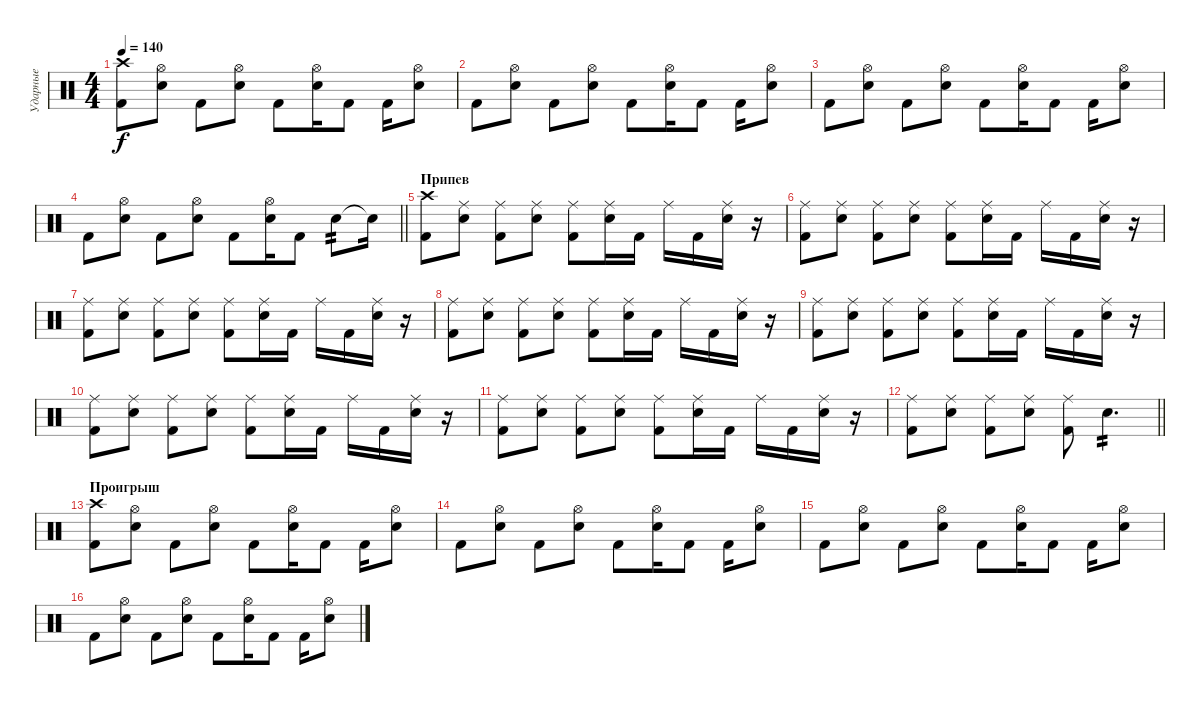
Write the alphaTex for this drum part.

\track ("Ударные" "Ударные") {instrument percussion}
\staff {score}
\articulation defaults
\ts (4 4)
\tempo 140
\clef neutral
\ks c
("Crash high (hit)" "Kick (hit) 2").8{dy f} ("Hi-Hat (open)" "Electric Snare (hit)").8 "Kick (hit) 2".8 ("Hi-Hat (open)" "Electric Snare (hit)").8 "Kick (hit) 2".8 ("Hi-Hat (open)" "Electric Snare (hit)").16 "Kick (hit) 2".8 "Kick (hit) 2".16 ("Hi-Hat (open)" "Electric Snare (hit)").8 |
"Kick (hit) 2".8 ("Hi-Hat (open)" "Electric Snare (hit)").8 "Kick (hit) 2".8 ("Hi-Hat (open)" "Electric Snare (hit)").8 "Kick (hit) 2".8 ("Hi-Hat (open)" "Electric Snare (hit)").16 "Kick (hit) 2".8 "Kick (hit) 2".16 ("Hi-Hat (open)" "Electric Snare (hit)").8 |
"Kick (hit) 2".8 ("Hi-Hat (open)" "Electric Snare (hit)").8 "Kick (hit) 2".8 ("Hi-Hat (open)" "Electric Snare (hit)").8 "Kick (hit) 2".8 ("Hi-Hat (open)" "Electric Snare (hit)").16 "Kick (hit) 2".8 "Kick (hit) 2".16 ("Hi-Hat (open)" "Electric Snare (hit)").8 |
\barLineRight lightlight "Kick (hit) 2".8
("Hi-Hat (open)" "Electric Snare (hit)").8 "Kick (hit) 2".8 ("Hi-Hat (open)" "Electric Snare (hit)").8 "Kick (hit) 2".8 ("Hi-Hat (open)" "Electric Snare (hit)").16 "Kick (hit) 2".8 "Electric Snare (hit)".8{tp 2} "Snare (hit)"{t}.16 |
\section ("" "Припев")
("Crash high (hit)" "Kick (hit) 2").8 ("Ride (middle)" "Electric Snare (hit)").8 ("Ride (middle)" "Kick (hit) 2").8 ("Ride (middle)" "Electric Snare (hit)").8 ("Ride (middle)" "Kick (hit) 2").8 ("Ride (middle)" "Electric Snare (hit)").16 "Kick (hit) 2".16 "Ride (middle)".16 "Kick (hit) 2".16 ("Ride (middle)" "Electric Snare (hit)").16 r.16 |
("Ride (middle)" "Kick (hit) 2").8 ("Ride (middle)" "Electric Snare (hit)").8 ("Ride (middle)" "Kick (hit) 2").8 ("Ride (middle)" "Electric Snare (hit)").8 ("Ride (middle)" "Kick (hit) 2").8 ("Ride (middle)" "Electric Snare (hit)").16 "Kick (hit) 2".16 "Ride (middle)".16 "Kick (hit) 2".16 ("Ride (middle)" "Electric Snare (hit)").16 r.16 |
("Ride (middle)" "Kick (hit) 2").8 ("Ride (middle)" "Electric Snare (hit)").8 ("Ride (middle)" "Kick (hit) 2").8 ("Ride (middle)" "Electric Snare (hit)").8 ("Ride (middle)" "Kick (hit) 2").8 ("Ride (middle)" "Electric Snare (hit)").16 "Kick (hit) 2".16 "Ride (middle)".16 "Kick (hit) 2".16 ("Ride (middle)" "Electric Snare (hit)").16 r.16 |
("Ride (middle)" "Kick (hit) 2").8 ("Ride (middle)" "Electric Snare (hit)").8 ("Ride (middle)" "Kick (hit) 2").8 ("Ride (middle)" "Electric Snare (hit)").8 ("Ride (middle)" "Kick (hit) 2").8 ("Ride (middle)" "Electric Snare (hit)").16 "Kick (hit) 2".16 "Ride (middle)".16 "Kick (hit) 2".16 ("Ride (middle)" "Electric Snare (hit)").16 r.16 |
("Ride (middle)" "Kick (hit) 2").8 ("Ride (middle)" "Electric Snare (hit)").8 ("Ride (middle)" "Kick (hit) 2").8 ("Ride (middle)" "Electric Snare (hit)").8 ("Ride (middle)" "Kick (hit) 2").8 ("Ride (middle)" "Electric Snare (hit)").16 "Kick (hit) 2".16 "Ride (middle)".16 "Kick (hit) 2".16 ("Ride (middle)" "Electric Snare (hit)").16 r.16 |
("Ride (middle)" "Kick (hit) 2").8 ("Ride (middle)" "Electric Snare (hit)").8 ("Ride (middle)" "Kick (hit) 2").8 ("Ride (middle)" "Electric Snare (hit)").8 ("Ride (middle)" "Kick (hit) 2").8 ("Ride (middle)" "Electric Snare (hit)").16 "Kick (hit) 2".16 "Ride (middle)".16 "Kick (hit) 2".16 ("Ride (middle)" "Electric Snare (hit)").16 r.16 |
("Ride (middle)" "Kick (hit) 2").8 ("Ride (middle)" "Electric Snare (hit)").8 ("Ride (middle)" "Kick (hit) 2").8 ("Ride (middle)" "Electric Snare (hit)").8 ("Ride (middle)" "Kick (hit) 2").8 ("Ride (middle)" "Electric Snare (hit)").16 "Kick (hit) 2".16 "Ride (middle)".16 "Kick (hit) 2".16 ("Ride (middle)" "Electric Snare (hit)").16 r.16 |
\barLineRight lightlight
("Ride (middle)" "Kick (hit) 2").8 ("Ride (middle)" "Electric Snare (hit)").8 ("Ride (middle)" "Kick (hit) 2").8 ("Ride (middle)" "Electric Snare (hit)").8 ("Ride (middle)" "Kick (hit) 2").8 "Electric Snare (hit)".4{d tp 2} |
\section ("" "Проигрыш")
("Crash high (hit)" "Kick (hit) 2").8 ("Hi-Hat (open)" "Electric Snare (hit)").8 "Kick (hit) 2".8 ("Hi-Hat (open)" "Electric Snare (hit)").8 "Kick (hit) 2".8 ("Hi-Hat (open)" "Electric Snare (hit)").16 "Kick (hit) 2".8 "Kick (hit) 2".16 ("Hi-Hat (open)" "Electric Snare (hit)").8 |
"Kick (hit) 2".8 ("Hi-Hat (open)" "Electric Snare (hit)").8 "Kick (hit) 2".8 ("Hi-Hat (open)" "Electric Snare (hit)").8 "Kick (hit) 2".8 ("Hi-Hat (open)" "Electric Snare (hit)").16 "Kick (hit) 2".8 "Kick (hit) 2".16 ("Hi-Hat (open)" "Electric Snare (hit)").8 |
"Kick (hit) 2".8 ("Hi-Hat (open)" "Electric Snare (hit)").8 "Kick (hit) 2".8 ("Hi-Hat (open)" "Electric Snare (hit)").8 "Kick (hit) 2".8 ("Hi-Hat (open)" "Electric Snare (hit)").16 "Kick (hit) 2".8 "Kick (hit) 2".16 ("Hi-Hat (open)" "Electric Snare (hit)").8 |
"Kick (hit) 2".8 ("Hi-Hat (open)" "Electric Snare (hit)").8 "Kick (hit) 2".8 ("Hi-Hat (open)" "Electric Snare (hit)").8 "Kick (hit) 2".8 ("Hi-Hat (open)" "Electric Snare (hit)").16 "Kick (hit) 2".8 "Kick (hit) 2".16 ("Hi-Hat (open)" "Electric Snare (hit)").8
